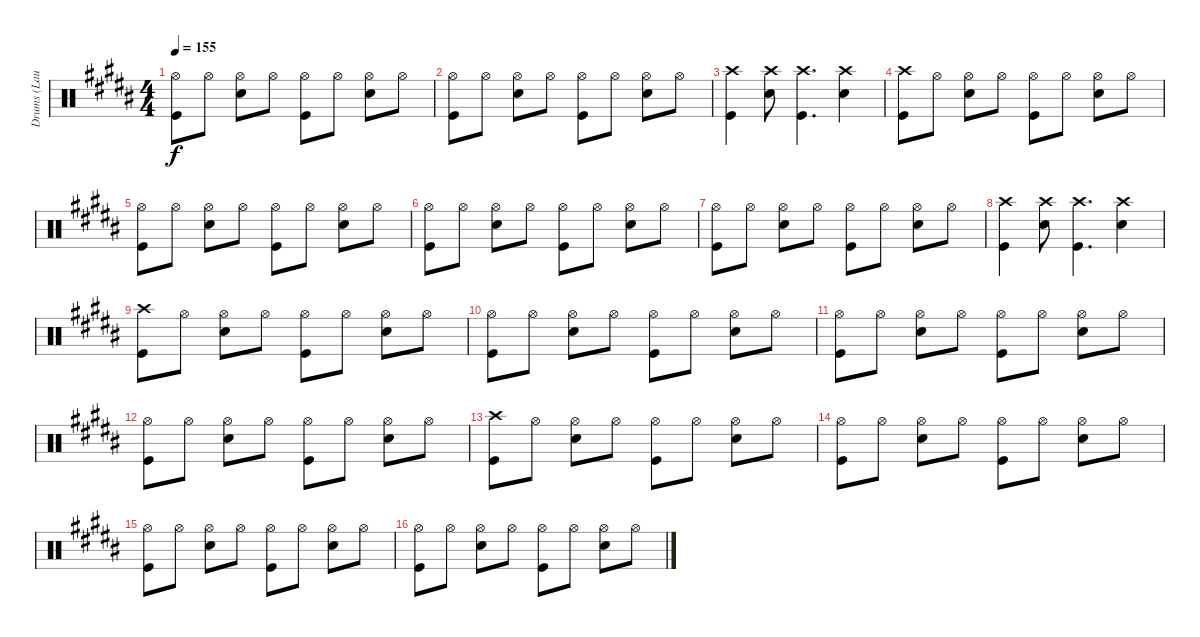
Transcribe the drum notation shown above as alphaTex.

\track ("Drums (Laust Sonne)" "Drums (Lau") {instrument percussion}
\staff {score}
\articulation defaults
\ts (4 4)
\tempo 155
\clef neutral
\ks b
("Hi-Hat (open)" "Kick (hit)").8{dy f} "Hi-Hat (open)".8 ("Hi-Hat (open)" "Snare (hit) 2").8 "Hi-Hat (open)".8 ("Hi-Hat (open)" "Kick (hit)").8 "Hi-Hat (open)".8 ("Hi-Hat (open)" "Snare (hit) 2").8 "Hi-Hat (open)".8 |
("Hi-Hat (open)" "Kick (hit)").8 "Hi-Hat (open)".8 ("Hi-Hat (open)" "Snare (hit) 2").8 "Hi-Hat (open)".8 ("Hi-Hat (open)" "Kick (hit)").8 "Hi-Hat (open)".8 ("Hi-Hat (open)" "Snare (hit) 2").8 "Hi-Hat (open)".8 |
("Crash high (hit)" "Kick (hit)").4 ("Crash high (hit)" "Snare (hit) 2").8 ("Crash high (hit)" "Kick (hit)").4{d} ("Crash high (hit)" "Snare (hit) 2").4 |
("Crash high (hit)" "Kick (hit)").8 "Hi-Hat (open)".8 ("Hi-Hat (open)" "Snare (hit) 2").8 "Hi-Hat (open)".8 ("Hi-Hat (open)" "Kick (hit)").8 "Hi-Hat (open)".8 ("Hi-Hat (open)" "Snare (hit) 2").8 "Hi-Hat (open)".8 |
("Hi-Hat (open)" "Kick (hit)").8 "Hi-Hat (open)".8 ("Hi-Hat (open)" "Snare (hit) 2").8 "Hi-Hat (open)".8 ("Hi-Hat (open)" "Kick (hit)").8 "Hi-Hat (open)".8 ("Hi-Hat (open)" "Snare (hit) 2").8 "Hi-Hat (open)".8 |
("Hi-Hat (open)" "Kick (hit)").8 "Hi-Hat (open)".8 ("Hi-Hat (open)" "Snare (hit) 2").8 "Hi-Hat (open)".8 ("Hi-Hat (open)" "Kick (hit)").8 "Hi-Hat (open)".8 ("Hi-Hat (open)" "Snare (hit) 2").8 "Hi-Hat (open)".8 |
("Hi-Hat (open)" "Kick (hit)").8 "Hi-Hat (open)".8 ("Hi-Hat (open)" "Snare (hit) 2").8 "Hi-Hat (open)".8 ("Hi-Hat (open)" "Kick (hit)").8 "Hi-Hat (open)".8 ("Hi-Hat (open)" "Snare (hit) 2").8 "Hi-Hat (open)".8 |
("Crash high (hit)" "Kick (hit)").4 ("Crash high (hit)" "Snare (hit) 2").8 ("Crash high (hit)" "Kick (hit)").4{d} ("Crash high (hit)" "Snare (hit) 2").4 |
("Crash high (hit)" "Kick (hit)").8 "Hi-Hat (open)".8 ("Hi-Hat (open)" "Snare (hit) 2").8 "Hi-Hat (open)".8 ("Hi-Hat (open)" "Kick (hit)").8 "Hi-Hat (open)".8 ("Hi-Hat (open)" "Snare (hit) 2").8 "Hi-Hat (open)".8 |
("Hi-Hat (open)" "Kick (hit)").8 "Hi-Hat (open)".8 ("Hi-Hat (open)" "Snare (hit) 2").8 "Hi-Hat (open)".8 ("Hi-Hat (open)" "Kick (hit)").8 "Hi-Hat (open)".8 ("Hi-Hat (open)" "Snare (hit) 2").8 "Hi-Hat (open)".8 |
("Hi-Hat (open)" "Kick (hit)").8 "Hi-Hat (open)".8 ("Hi-Hat (open)" "Snare (hit) 2").8 "Hi-Hat (open)".8 ("Hi-Hat (open)" "Kick (hit)").8 "Hi-Hat (open)".8 ("Hi-Hat (open)" "Snare (hit) 2").8 "Hi-Hat (open)".8 |
("Hi-Hat (open)" "Kick (hit)").8 "Hi-Hat (open)".8 ("Hi-Hat (open)" "Snare (hit) 2").8 "Hi-Hat (open)".8 ("Hi-Hat (open)" "Kick (hit)").8 "Hi-Hat (open)".8 ("Hi-Hat (open)" "Snare (hit) 2").8 "Hi-Hat (open)".8 |
("Crash high (hit)" "Kick (hit)").8 "Hi-Hat (open)".8 ("Hi-Hat (open)" "Snare (hit) 2").8 "Hi-Hat (open)".8 ("Hi-Hat (open)" "Kick (hit)").8 "Hi-Hat (open)".8 ("Hi-Hat (open)" "Snare (hit) 2").8 "Hi-Hat (open)".8 |
("Hi-Hat (open)" "Kick (hit)").8 "Hi-Hat (open)".8 ("Hi-Hat (open)" "Snare (hit) 2").8 "Hi-Hat (open)".8 ("Hi-Hat (open)" "Kick (hit)").8 "Hi-Hat (open)".8 ("Hi-Hat (open)" "Snare (hit) 2").8 "Hi-Hat (open)".8 |
("Hi-Hat (open)" "Kick (hit)").8 "Hi-Hat (open)".8 ("Hi-Hat (open)" "Snare (hit) 2").8 "Hi-Hat (open)".8 ("Hi-Hat (open)" "Kick (hit)").8 "Hi-Hat (open)".8 ("Hi-Hat (open)" "Snare (hit) 2").8 "Hi-Hat (open)".8 |
("Hi-Hat (open)" "Kick (hit)").8 "Hi-Hat (open)".8 ("Hi-Hat (open)" "Snare (hit) 2").8 "Hi-Hat (open)".8 ("Hi-Hat (open)" "Kick (hit)").8 "Hi-Hat (open)".8 ("Hi-Hat (open)" "Snare (hit) 2").8 "Hi-Hat (open)".8
